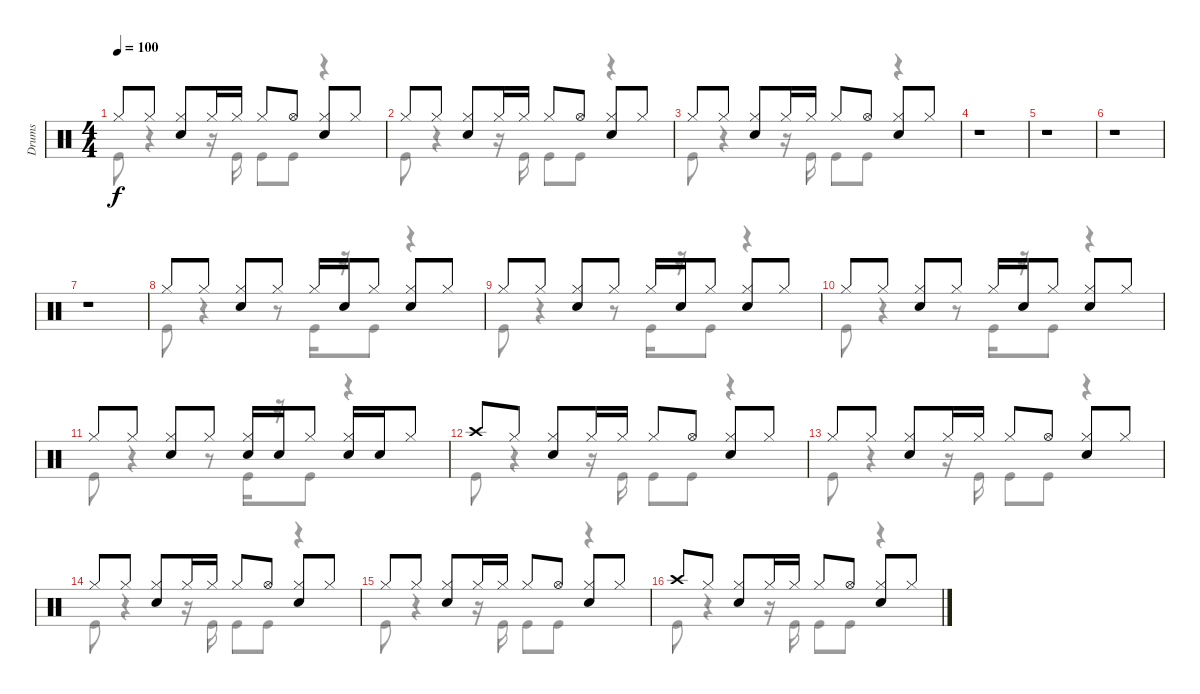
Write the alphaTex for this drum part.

\track ("Drums" "Drums") {instrument percussion}
\staff {score}
\articulation defaults
\voice
\ts (4 4)
\tempo 100
\clef neutral
\ks c "Hi-Hat (closed)".8{dy f} "Hi-Hat (closed)".8
("Hi-Hat (closed)" "Electric Snare (hit)").8 "Hi-Hat (closed)".16 "Hi-Hat (closed)".16 "Hi-Hat (closed)".8 "Hi-Hat (open)".8 ("Hi-Hat (closed)" "Electric Snare (hit)").8 "Hi-Hat (closed)".8 |
"Hi-Hat (closed)".8 "Hi-Hat (closed)".8 ("Hi-Hat (closed)" "Electric Snare (hit)").8 "Hi-Hat (closed)".16 "Hi-Hat (closed)".16 "Hi-Hat (closed)".8 "Hi-Hat (open)".8 ("Hi-Hat (closed)" "Electric Snare (hit)").8 "Hi-Hat (closed)".8 |
"Hi-Hat (closed)".8 "Hi-Hat (closed)".8 ("Hi-Hat (closed)" "Electric Snare (hit)").8 "Hi-Hat (closed)".16 "Hi-Hat (closed)".16 "Hi-Hat (closed)".8 "Hi-Hat (open)".8 ("Hi-Hat (closed)" "Electric Snare (hit)").8 "Hi-Hat (closed)".8 |
r.1 |
r.1 |
r.1 |
r.1 |
"Hi-Hat (closed)".8 "Hi-Hat (closed)".8 ("Hi-Hat (closed)" "Electric Snare (hit)").8 "Hi-Hat (closed)".8 "Hi-Hat (closed)".16 "Electric Snare (hit)".16 "Hi-Hat (closed)".8 ("Hi-Hat (closed)" "Electric Snare (hit)").8 "Hi-Hat (closed)".8 |
"Hi-Hat (closed)".8 "Hi-Hat (closed)".8 ("Hi-Hat (closed)" "Electric Snare (hit)").8 "Hi-Hat (closed)".8 "Hi-Hat (closed)".16 "Electric Snare (hit)".16 "Hi-Hat (closed)".8 ("Hi-Hat (closed)" "Electric Snare (hit)").8 "Hi-Hat (closed)".8 |
"Hi-Hat (closed)".8 "Hi-Hat (closed)".8 ("Hi-Hat (closed)" "Electric Snare (hit)").8 "Hi-Hat (closed)".8 "Hi-Hat (closed)".16 "Electric Snare (hit)".16 "Hi-Hat (closed)".8 ("Hi-Hat (closed)" "Electric Snare (hit)").8 "Hi-Hat (closed)".8 |
"Hi-Hat (closed)".8 "Hi-Hat (closed)".8 ("Hi-Hat (closed)" "Electric Snare (hit)").8 "Hi-Hat (closed)".8 ("Hi-Hat (closed)" "Electric Snare (hit)").16 "Electric Snare (hit)".16 "Hi-Hat (closed)".8 ("Hi-Hat (closed)" "Electric Snare (hit)").16 "Electric Snare (hit)".16 "Hi-Hat (closed)".8 |
"Crash high (hit)".8 "Hi-Hat (closed)".8 ("Hi-Hat (closed)" "Electric Snare (hit)").8 "Hi-Hat (closed)".16 "Hi-Hat (closed)".16 "Hi-Hat (closed)".8 "Hi-Hat (open)".8 ("Hi-Hat (closed)" "Electric Snare (hit)").8 "Hi-Hat (closed)".8 |
"Hi-Hat (closed)".8 "Hi-Hat (closed)".8 ("Hi-Hat (closed)" "Electric Snare (hit)").8 "Hi-Hat (closed)".16 "Hi-Hat (closed)".16 "Hi-Hat (closed)".8 "Hi-Hat (open)".8 ("Hi-Hat (closed)" "Electric Snare (hit)").8 "Hi-Hat (closed)".8 |
"Hi-Hat (closed)".8 "Hi-Hat (closed)".8 ("Hi-Hat (closed)" "Electric Snare (hit)").8 "Hi-Hat (closed)".16 "Hi-Hat (closed)".16 "Hi-Hat (closed)".8 "Hi-Hat (open)".8 ("Hi-Hat (closed)" "Electric Snare (hit)").8 "Hi-Hat (closed)".8 |
"Hi-Hat (closed)".8 "Hi-Hat (closed)".8 ("Hi-Hat (closed)" "Electric Snare (hit)").8 "Hi-Hat (closed)".16 "Hi-Hat (closed)".16 "Hi-Hat (closed)".8 "Hi-Hat (open)".8 ("Hi-Hat (closed)" "Electric Snare (hit)").8 "Hi-Hat (closed)".8 |
"Crash high (hit)".8 "Hi-Hat (closed)".8 ("Hi-Hat (closed)" "Electric Snare (hit)").8 "Hi-Hat (closed)".16 "Hi-Hat (closed)".16 "Hi-Hat (closed)".8 "Hi-Hat (open)".8 ("Hi-Hat (closed)" "Electric Snare (hit)").8 "Hi-Hat (closed)".8
\voice
\clef neutral
\ottava regular
\simile none
\ks c "Kick (hit)".8{dy f}
r.4 r.16 "Kick (hit)".16 "Kick (hit)".8 "Kick (hit)".8 r.4 |
"Kick (hit)".8 r.4 r.16 "Kick (hit)".16 "Kick (hit)".8 "Kick (hit)".8 r.4 |
"Kick (hit)".8 r.4 r.16 "Kick (hit)".16 "Kick (hit)".8 "Kick (hit)".8 r.4 |
r.1 |
r.1 |
r.1 |
r.1 |
"Kick (hit)".8 r.4 r.8 "Kick (hit)".16 r.16 "Kick (hit)".8 r.4 |
"Kick (hit)".8 r.4 r.8 "Kick (hit)".16 r.16 "Kick (hit)".8 r.4 |
"Kick (hit)".8 r.4 r.8 "Kick (hit)".16 r.16 "Kick (hit)".8 r.4 |
"Kick (hit)".8 r.4 r.8 "Kick (hit)".16 r.16 "Kick (hit)".8 r.4 |
"Kick (hit)".8 r.4 r.16 "Kick (hit)".16 "Kick (hit)".8 "Kick (hit)".8 r.4 |
"Kick (hit)".8 r.4 r.16 "Kick (hit)".16 "Kick (hit)".8 "Kick (hit)".8 r.4 |
"Kick (hit)".8 r.4 r.16 "Kick (hit)".16 "Kick (hit)".8 "Kick (hit)".8 r.4 |
"Kick (hit)".8 r.4 r.16 "Kick (hit)".16 "Kick (hit)".8 "Kick (hit)".8 r.4 |
"Kick (hit)".8 r.4 r.16 "Kick (hit)".16 "Kick (hit)".8 "Kick (hit)".8 r.4
